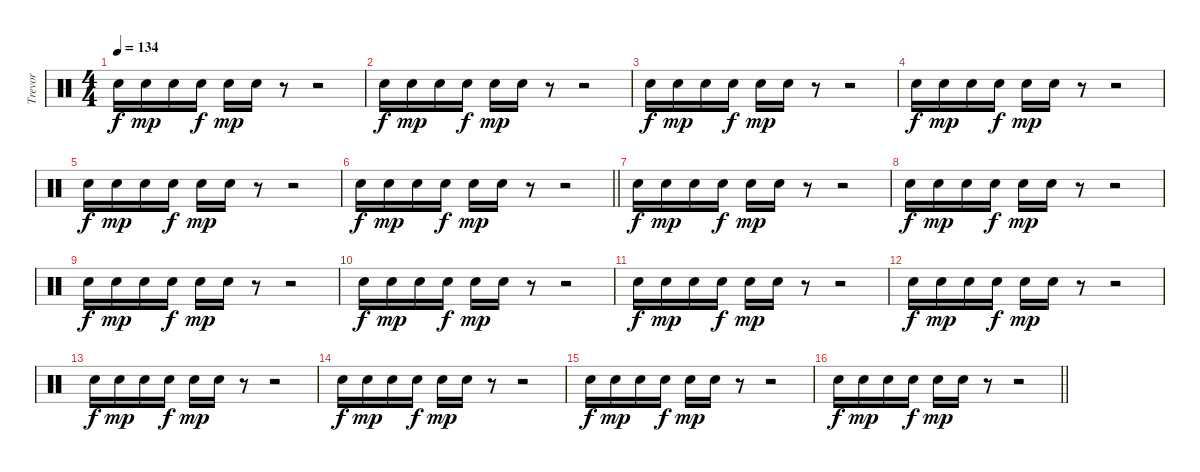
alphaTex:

\track ("Trevor" "Trevor") {instrument percussion}
\staff {score}
\articulation defaults
\ts (4 4)
\tempo 134
\clef neutral
\ks c "Snare (hit) 2".16{dy f} "Snare (hit) 2".16{dy mp} "Snare (hit) 2".16 "Snare (hit) 2".16{dy f} "Snare (hit) 2".16{dy mp} "Snare (hit) 2".16
r.8 r.2 |
"Snare (hit) 2".16{dy f} "Snare (hit) 2".16{dy mp} "Snare (hit) 2".16 "Snare (hit) 2".16{dy f} "Snare (hit) 2".16{dy mp} "Snare (hit) 2".16 r.8 r.2 |
"Snare (hit) 2".16{dy f} "Snare (hit) 2".16{dy mp} "Snare (hit) 2".16 "Snare (hit) 2".16{dy f} "Snare (hit) 2".16{dy mp} "Snare (hit) 2".16 r.8 r.2 |
"Snare (hit) 2".16{dy f} "Snare (hit) 2".16{dy mp} "Snare (hit) 2".16 "Snare (hit) 2".16{dy f} "Snare (hit) 2".16{dy mp} "Snare (hit) 2".16 r.8 r.2 |
"Snare (hit) 2".16{dy f} "Snare (hit) 2".16{dy mp} "Snare (hit) 2".16 "Snare (hit) 2".16{dy f} "Snare (hit) 2".16{dy mp} "Snare (hit) 2".16 r.8 r.2 |
\barLineRight lightlight "Snare (hit) 2".16{dy f} "Snare (hit) 2".16{dy mp} "Snare (hit) 2".16 "Snare (hit) 2".16{dy f} "Snare (hit) 2".16{dy mp} "Snare (hit) 2".16
r.8 r.2 |
\section ("" "")
"Snare (hit) 2".16{dy f} "Snare (hit) 2".16{dy mp} "Snare (hit) 2".16 "Snare (hit) 2".16{dy f} "Snare (hit) 2".16{dy mp} "Snare (hit) 2".16 r.8 r.2 |
"Snare (hit) 2".16{dy f} "Snare (hit) 2".16{dy mp} "Snare (hit) 2".16 "Snare (hit) 2".16{dy f} "Snare (hit) 2".16{dy mp} "Snare (hit) 2".16 r.8 r.2 |
"Snare (hit) 2".16{dy f} "Snare (hit) 2".16{dy mp} "Snare (hit) 2".16 "Snare (hit) 2".16{dy f} "Snare (hit) 2".16{dy mp} "Snare (hit) 2".16 r.8 r.2 |
"Snare (hit) 2".16{dy f} "Snare (hit) 2".16{dy mp} "Snare (hit) 2".16 "Snare (hit) 2".16{dy f} "Snare (hit) 2".16{dy mp} "Snare (hit) 2".16 r.8 r.2 |
"Snare (hit) 2".16{dy f} "Snare (hit) 2".16{dy mp} "Snare (hit) 2".16 "Snare (hit) 2".16{dy f} "Snare (hit) 2".16{dy mp} "Snare (hit) 2".16 r.8 r.2 |
"Snare (hit) 2".16{dy f} "Snare (hit) 2".16{dy mp} "Snare (hit) 2".16 "Snare (hit) 2".16{dy f} "Snare (hit) 2".16{dy mp} "Snare (hit) 2".16 r.8 r.2 |
"Snare (hit) 2".16{dy f} "Snare (hit) 2".16{dy mp} "Snare (hit) 2".16 "Snare (hit) 2".16{dy f} "Snare (hit) 2".16{dy mp} "Snare (hit) 2".16 r.8 r.2 |
"Snare (hit) 2".16{dy f} "Snare (hit) 2".16{dy mp} "Snare (hit) 2".16 "Snare (hit) 2".16{dy f} "Snare (hit) 2".16{dy mp} "Snare (hit) 2".16 r.8 r.2 |
"Snare (hit) 2".16{dy f} "Snare (hit) 2".16{dy mp} "Snare (hit) 2".16 "Snare (hit) 2".16{dy f} "Snare (hit) 2".16{dy mp} "Snare (hit) 2".16 r.8 r.2 |
\barLineRight lightlight "Snare (hit) 2".16{dy f} "Snare (hit) 2".16{dy mp} "Snare (hit) 2".16 "Snare (hit) 2".16{dy f} "Snare (hit) 2".16{dy mp} "Snare (hit) 2".16
r.8 r.2
